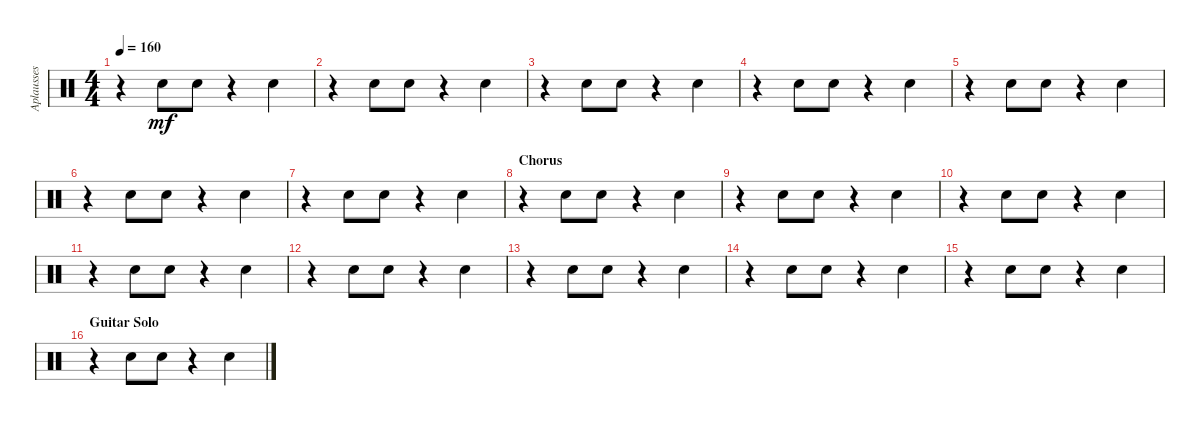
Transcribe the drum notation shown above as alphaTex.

\track ("Aplausses" "Aplausses") {instrument percussion}
\staff {score}
\articulation defaults
\ts (4 4)
\tempo 160
\clef neutral
\ks c
r.4{dy mf} "Hand Clap (hit)".8 "Hand Clap (hit)".8 r.4 "Hand Clap (hit)".4 |
r.4 "Hand Clap (hit)".8 "Hand Clap (hit)".8 r.4 "Hand Clap (hit)".4 |
r.4 "Hand Clap (hit)".8 "Hand Clap (hit)".8 r.4 "Hand Clap (hit)".4 |
r.4 "Hand Clap (hit)".8 "Hand Clap (hit)".8 r.4 "Hand Clap (hit)".4 |
r.4 "Hand Clap (hit)".8 "Hand Clap (hit)".8 r.4 "Hand Clap (hit)".4 |
r.4 "Hand Clap (hit)".8 "Hand Clap (hit)".8 r.4 "Hand Clap (hit)".4 |
r.4 "Hand Clap (hit)".8 "Hand Clap (hit)".8 r.4 "Hand Clap (hit)".4 |
\section ("" "Chorus")
r.4 "Hand Clap (hit)".8 "Hand Clap (hit)".8 r.4 "Hand Clap (hit)".4 |
r.4 "Hand Clap (hit)".8 "Hand Clap (hit)".8 r.4 "Hand Clap (hit)".4 |
r.4 "Hand Clap (hit)".8 "Hand Clap (hit)".8 r.4 "Hand Clap (hit)".4 |
r.4 "Hand Clap (hit)".8 "Hand Clap (hit)".8 r.4 "Hand Clap (hit)".4 |
r.4 "Hand Clap (hit)".8 "Hand Clap (hit)".8 r.4 "Hand Clap (hit)".4 |
r.4 "Hand Clap (hit)".8 "Hand Clap (hit)".8 r.4 "Hand Clap (hit)".4 |
r.4 "Hand Clap (hit)".8 "Hand Clap (hit)".8 r.4 "Hand Clap (hit)".4 |
r.4 "Hand Clap (hit)".8 "Hand Clap (hit)".8 r.4 "Hand Clap (hit)".4 |
\section ("" "Guitar Solo")
r.4 "Hand Clap (hit)".8 "Hand Clap (hit)".8 r.4 "Hand Clap (hit)".4
